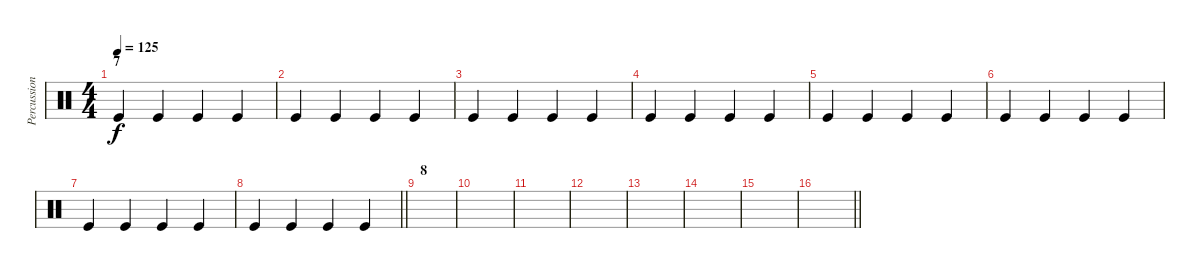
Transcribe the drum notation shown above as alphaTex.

\track ("Percussion" "Percussion") {instrument percussion}
\staff {score}
\articulation defaults
\ts (4 4)
\section ("" "7")
\tempo 125
\clef neutral
\ks c "Kick (hit)".4{dy f} "Kick (hit)".4 "Kick (hit)".4 "Kick (hit)".4
|
"Kick (hit)".4 "Kick (hit)".4 "Kick (hit)".4 "Kick (hit)".4 |
"Kick (hit)".4 "Kick (hit)".4 "Kick (hit)".4 "Kick (hit)".4 |
"Kick (hit)".4 "Kick (hit)".4 "Kick (hit)".4 "Kick (hit)".4 |
"Kick (hit)".4 "Kick (hit)".4 "Kick (hit)".4 "Kick (hit)".4 |
"Kick (hit)".4 "Kick (hit)".4 "Kick (hit)".4 "Kick (hit)".4 |
"Kick (hit)".4 "Kick (hit)".4 "Kick (hit)".4 "Kick (hit)".4 |
\barLineRight lightlight "Kick (hit)".4 "Kick (hit)".4 "Kick (hit)".4 "Kick (hit)".4
|
\section ("" "8")
|
|
|
|
|
|
|
\barLineRight lightlight
